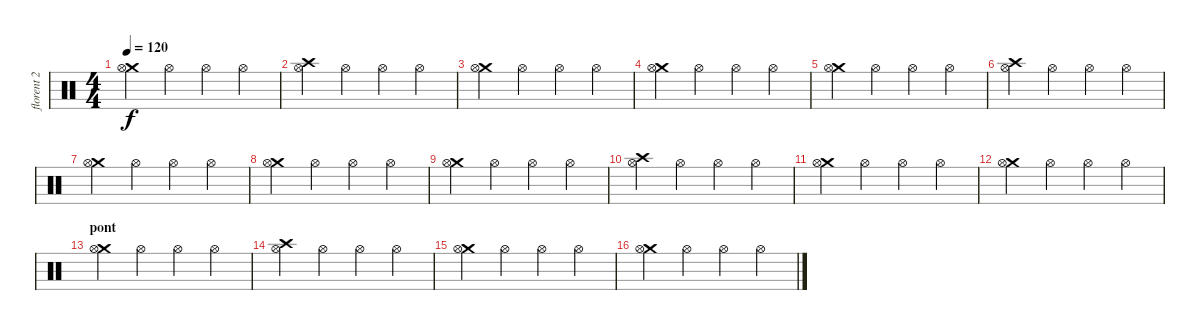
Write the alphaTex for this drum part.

\track ("florent 2" "florent 2") {instrument percussion}
\staff {score}
\articulation defaults
\ts (4 4)
\tempo 120
\clef neutral
\ks c
("Crash medium (hit)" "Hi-Hat (open)").4{dy f} "Hi-Hat (open)".4 "Hi-Hat (open)".4 "Hi-Hat (open)".4 |
("Crash high (hit)" "Hi-Hat (open)").4 "Hi-Hat (open)".4 "Hi-Hat (open)".4 "Hi-Hat (open)".4 |
("Crash medium (hit)" "Hi-Hat (open)").4 "Hi-Hat (open)".4 "Hi-Hat (open)".4 "Hi-Hat (open)".4 |
("Crash medium (hit)" "Hi-Hat (open)").4 "Hi-Hat (open)".4 "Hi-Hat (open)".4 "Hi-Hat (open)".4 |
("Crash medium (hit)" "Hi-Hat (open)").4 "Hi-Hat (open)".4 "Hi-Hat (open)".4 "Hi-Hat (open)".4 |
("Crash high (hit)" "Hi-Hat (open)").4 "Hi-Hat (open)".4 "Hi-Hat (open)".4 "Hi-Hat (open)".4 |
("Crash medium (hit)" "Hi-Hat (open)").4 "Hi-Hat (open)".4 "Hi-Hat (open)".4 "Hi-Hat (open)".4 |
("Crash medium (hit)" "Hi-Hat (open)").4 "Hi-Hat (open)".4 "Hi-Hat (open)".4 "Hi-Hat (open)".4 |
("Crash medium (hit)" "Hi-Hat (open)").4 "Hi-Hat (open)".4 "Hi-Hat (open)".4 "Hi-Hat (open)".4 |
("Crash high (hit)" "Hi-Hat (open)").4 "Hi-Hat (open)".4 "Hi-Hat (open)".4 "Hi-Hat (open)".4 |
("Crash medium (hit)" "Hi-Hat (open)").4 "Hi-Hat (open)".4 "Hi-Hat (open)".4 "Hi-Hat (open)".4 |
("Crash medium (hit)" "Hi-Hat (open)").4 "Hi-Hat (open)".4 "Hi-Hat (open)".4 "Hi-Hat (open)".4 |
\section ("" "pont")
("Crash medium (hit)" "Hi-Hat (open)").4 "Hi-Hat (open)".4 "Hi-Hat (open)".4 "Hi-Hat (open)".4 |
("Crash high (hit)" "Hi-Hat (open)").4 "Hi-Hat (open)".4 "Hi-Hat (open)".4 "Hi-Hat (open)".4 |
("Crash medium (hit)" "Hi-Hat (open)").4 "Hi-Hat (open)".4 "Hi-Hat (open)".4 "Hi-Hat (open)".4 |
("Crash medium (hit)" "Hi-Hat (open)").4 "Hi-Hat (open)".4 "Hi-Hat (open)".4 "Hi-Hat (open)".4
